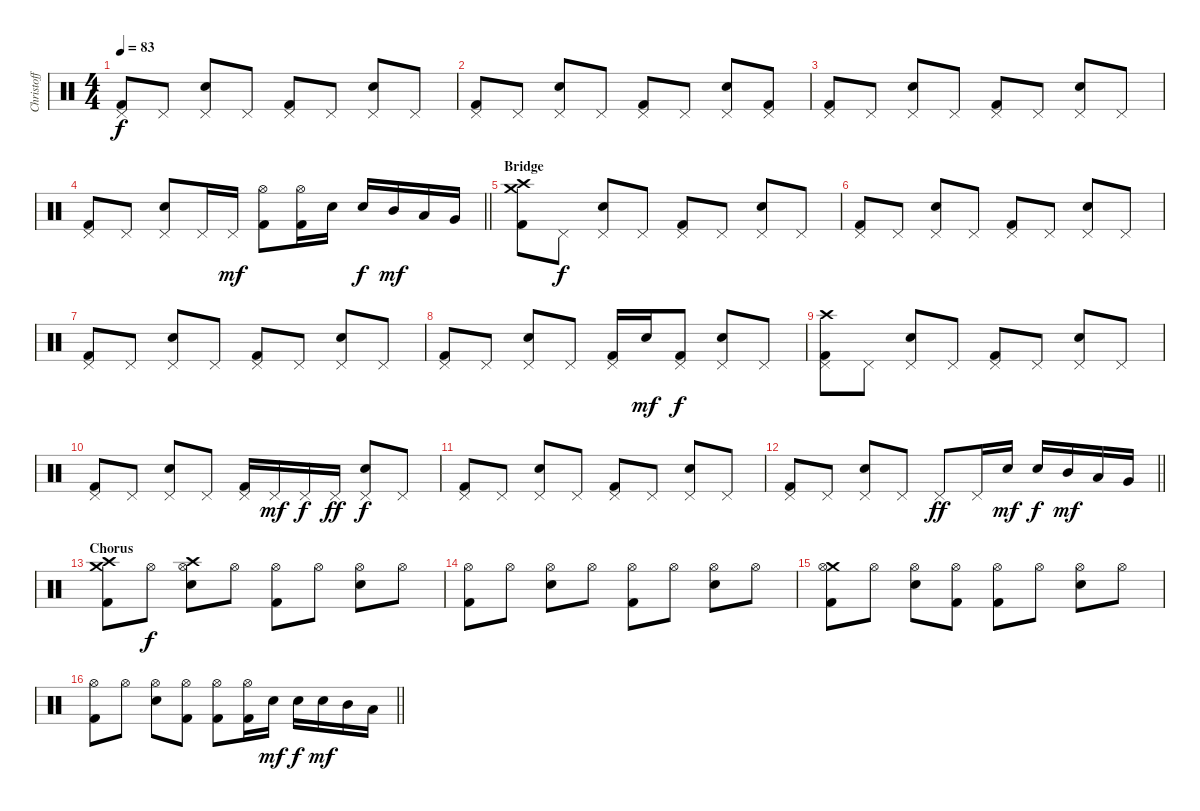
\track ("Christoff" "Christoff") {instrument percussion}
\staff {score}
\articulation defaults
\ts (4 4)
\tempo 83
\clef neutral
\ks c
("Pedal Hi-Hat (hit)" "Kick (hit) 2").8{dy f} "Pedal Hi-Hat (hit)".8 ("Pedal Hi-Hat (hit)" "Electric Snare (hit)").8 "Pedal Hi-Hat (hit)".8 ("Pedal Hi-Hat (hit)" "Kick (hit) 2").8 "Pedal Hi-Hat (hit)".8 ("Pedal Hi-Hat (hit)" "Electric Snare (hit)").8 "Pedal Hi-Hat (hit)".8 |
("Pedal Hi-Hat (hit)" "Kick (hit) 2").8 "Pedal Hi-Hat (hit)".8 ("Pedal Hi-Hat (hit)" "Electric Snare (hit)").8 "Pedal Hi-Hat (hit)".8 ("Pedal Hi-Hat (hit)" "Kick (hit) 2").8 "Pedal Hi-Hat (hit)".8 ("Pedal Hi-Hat (hit)" "Electric Snare (hit)").8 ("Pedal Hi-Hat (hit)" "Kick (hit) 2").8 |
("Pedal Hi-Hat (hit)" "Kick (hit) 2").8 "Pedal Hi-Hat (hit)".8 ("Pedal Hi-Hat (hit)" "Electric Snare (hit)").8 "Pedal Hi-Hat (hit)".8 ("Pedal Hi-Hat (hit)" "Kick (hit) 2").8 "Pedal Hi-Hat (hit)".8 ("Pedal Hi-Hat (hit)" "Electric Snare (hit)").8 "Pedal Hi-Hat (hit)".8 |
\barLineRight lightlight
("Pedal Hi-Hat (hit)" "Kick (hit) 2").8 "Pedal Hi-Hat (hit)".8 ("Pedal Hi-Hat (hit)" "Electric Snare (hit)").8 "Pedal Hi-Hat (hit)".16 "Pedal Hi-Hat (hit)".16{dy mf} ("Hi-Hat (open)" "Kick (hit) 2").8 ("Hi-Hat (open)" "Kick (hit) 2").16 "Electric Snare (hit)".16 "Electric Snare (hit)".16{dy f} "Mid Tom (hit)".16{dy mf} "Low Tom (hit)".16 "Very Low Tom (hit)".16 |
\section ("" "Bridge")
("Crash medium (hit)" "Crash high (hit)" "Kick (hit) 2").8 "Pedal Hi-Hat (hit)".8{dy f} ("Pedal Hi-Hat (hit)" "Electric Snare (hit)").8 "Pedal Hi-Hat (hit)".8 ("Pedal Hi-Hat (hit)" "Kick (hit) 2").8 "Pedal Hi-Hat (hit)".8 ("Pedal Hi-Hat (hit)" "Electric Snare (hit)").8 "Pedal Hi-Hat (hit)".8 |
("Pedal Hi-Hat (hit)" "Kick (hit) 2").8 "Pedal Hi-Hat (hit)".8 ("Pedal Hi-Hat (hit)" "Electric Snare (hit)").8 "Pedal Hi-Hat (hit)".8 ("Pedal Hi-Hat (hit)" "Kick (hit) 2").8 "Pedal Hi-Hat (hit)".8 ("Pedal Hi-Hat (hit)" "Electric Snare (hit)").8 "Pedal Hi-Hat (hit)".8 |
("Pedal Hi-Hat (hit)" "Kick (hit) 2").8 "Pedal Hi-Hat (hit)".8 ("Pedal Hi-Hat (hit)" "Electric Snare (hit)").8 "Pedal Hi-Hat (hit)".8 ("Pedal Hi-Hat (hit)" "Kick (hit) 2").8 "Pedal Hi-Hat (hit)".8 ("Pedal Hi-Hat (hit)" "Electric Snare (hit)").8 "Pedal Hi-Hat (hit)".8 |
("Pedal Hi-Hat (hit)" "Kick (hit) 2").8 "Pedal Hi-Hat (hit)".8 ("Pedal Hi-Hat (hit)" "Electric Snare (hit)").8 "Pedal Hi-Hat (hit)".8 ("Pedal Hi-Hat (hit)" "Kick (hit) 2").16 "Electric Snare (hit)".16{dy mf} ("Pedal Hi-Hat (hit)" "Kick (hit) 2").8{dy f} ("Pedal Hi-Hat (hit)" "Electric Snare (hit)").8 "Pedal Hi-Hat (hit)".8 |
("Crash high (hit)" "Pedal Hi-Hat (hit)" "Kick (hit) 2").8 "Pedal Hi-Hat (hit)".8 ("Pedal Hi-Hat (hit)" "Electric Snare (hit)").8 "Pedal Hi-Hat (hit)".8 ("Pedal Hi-Hat (hit)" "Kick (hit) 2").8 "Pedal Hi-Hat (hit)".8 ("Pedal Hi-Hat (hit)" "Electric Snare (hit)").8 "Pedal Hi-Hat (hit)".8 |
("Pedal Hi-Hat (hit)" "Kick (hit) 2").8 "Pedal Hi-Hat (hit)".8 ("Pedal Hi-Hat (hit)" "Electric Snare (hit)").8 "Pedal Hi-Hat (hit)".8 ("Pedal Hi-Hat (hit)" "Kick (hit) 2").16 "Pedal Hi-Hat (hit)".16{dy mf} "Pedal Hi-Hat (hit)".16{dy f} "Pedal Hi-Hat (hit)".16{dy ff} ("Pedal Hi-Hat (hit)" "Electric Snare (hit)").8{dy f} "Pedal Hi-Hat (hit)".8 |
("Pedal Hi-Hat (hit)" "Kick (hit) 2").8 "Pedal Hi-Hat (hit)".8 ("Pedal Hi-Hat (hit)" "Electric Snare (hit)").8 "Pedal Hi-Hat (hit)".8 ("Pedal Hi-Hat (hit)" "Kick (hit) 2").8 "Pedal Hi-Hat (hit)".8 ("Pedal Hi-Hat (hit)" "Electric Snare (hit)").8 "Pedal Hi-Hat (hit)".8 |
\barLineRight lightlight
("Pedal Hi-Hat (hit)" "Kick (hit) 2").8 "Pedal Hi-Hat (hit)".8 ("Pedal Hi-Hat (hit)" "Electric Snare (hit)").8 "Pedal Hi-Hat (hit)".8 "Pedal Hi-Hat (hit)".8{dy ff} "Pedal Hi-Hat (hit)".16 "Electric Snare (hit)".16{dy mf} "Electric Snare (hit)".16{dy f} "Mid Tom (hit)".16{dy mf} "Low Tom (hit)".16 "Very Low Tom (hit)".16 |
\section ("" "Chorus")
("Crash medium (hit)" "Crash high (hit)" "Kick (hit) 2").8 "Hi-Hat (open)".8{dy f} ("Crash high (hit)" "Hi-Hat (open)" "Electric Snare (hit)").8 "Hi-Hat (open)".8 ("Hi-Hat (open)" "Kick (hit) 2").8 "Hi-Hat (open)".8 ("Hi-Hat (open)" "Electric Snare (hit)").8 "Hi-Hat (open)".8 |
("Hi-Hat (open)" "Kick (hit) 2").8 "Hi-Hat (open)".8 ("Hi-Hat (open)" "Electric Snare (hit)").8 "Hi-Hat (open)".8 ("Hi-Hat (open)" "Kick (hit) 2").8 "Hi-Hat (open)".8 ("Hi-Hat (open)" "Electric Snare (hit)").8 "Hi-Hat (open)".8 |
("Crash medium (hit)" "Hi-Hat (open)" "Kick (hit) 2").8 "Hi-Hat (open)".8 ("Hi-Hat (open)" "Electric Snare (hit)").8 ("Hi-Hat (open)" "Kick (hit) 2").8 ("Hi-Hat (open)" "Kick (hit) 2").8 "Hi-Hat (open)".8 ("Hi-Hat (open)" "Electric Snare (hit)").8 "Hi-Hat (open)".8 |
\barLineRight lightlight
("Hi-Hat (open)" "Kick (hit) 2").8 "Hi-Hat (open)".8 ("Hi-Hat (open)" "Electric Snare (hit)").8 ("Hi-Hat (open)" "Kick (hit) 2").8 ("Hi-Hat (open)" "Kick (hit) 2").8 ("Hi-Hat (open)" "Kick (hit) 2").16 "Electric Snare (hit)".16{dy mf} "Electric Snare (hit)".16{dy f} "Electric Snare (hit)".16{dy mf} "Mid Tom (hit)".16 "Low Tom (hit)".16
